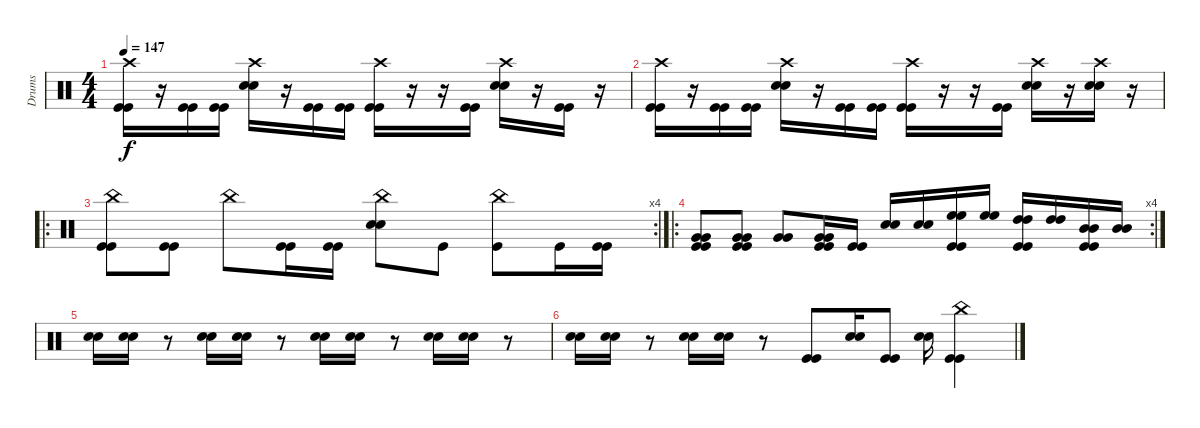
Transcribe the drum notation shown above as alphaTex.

\track ("Drums" "Drums") {instrument percussion}
\staff {score}
\articulation defaults
\ts (4 4)
\tempo 147
\clef neutral
\ks c
("Crash high (hit)" "Kick (hit)" "Kick (hit)").16{dy f} r.16 ("Kick (hit)" "Kick (hit)").16 ("Kick (hit)" "Kick (hit)").16 ("Crash high (hit)" "Snare (hit) 2" "Snare (hit) 2").16 r.16 ("Kick (hit)" "Kick (hit)").16 ("Kick (hit)" "Kick (hit)").16 ("Crash high (hit)" "Kick (hit)" "Kick (hit)").16 r.16 r.16 ("Kick (hit)" "Kick (hit)").16 ("Crash high (hit)" "Snare (hit) 2" "Snare (hit) 2").16 r.16 ("Kick (hit)" "Kick (hit)").16 r.16 |
("Crash high (hit)" "Kick (hit)" "Kick (hit)").16 r.16 ("Kick (hit)" "Kick (hit)").16 ("Kick (hit)" "Kick (hit)").16 ("Crash high (hit)" "Snare (hit) 2" "Snare (hit) 2").16 r.16 ("Kick (hit)" "Kick (hit)").16 ("Kick (hit)" "Kick (hit)").16 ("Crash high (hit)" "Kick (hit)" "Kick (hit)").16 r.16 r.16 ("Kick (hit)" "Kick (hit)").16 ("Crash high (hit)" "Snare (hit) 2" "Snare (hit) 2").16 r.16 ("Crash high (hit)" "Snare (hit) 2" "Snare (hit) 2").16 r.16 |
\ro
\rc 4
("China (hit)" "Kick (hit)" "Kick (hit)").8 ("Kick (hit)" "Kick (hit)").8 "China (hit)".8 ("Kick (hit)" "Kick (hit)").16 ("Kick (hit)" "Kick (hit)").16 ("China (hit)" "Snare (hit) 2" "Snare (hit) 2").8 "Kick (hit)".8 ("China (hit)" "Kick (hit)").8 "Kick (hit)".16 ("Kick (hit)" "Kick (hit)").16 |
\ro
\rc 4
("Very Low Tom (hit)" "Very Low Tom (hit)" "Kick (hit)" "Kick (hit)").8 ("Very Low Tom (hit)" "Very Low Tom (hit)" "Kick (hit)" "Kick (hit)").8 ("Very Low Tom (hit)" "Very Low Tom (hit)").8 ("Very Low Tom (hit)" "Very Low Tom (hit)" "Kick (hit)" "Kick (hit)").16 ("Kick (hit)" "Kick (hit)").16 ("Snare (hit) 2" "Snare (hit) 2").16 ("Snare (hit) 2" "Snare (hit) 2").16 ("High Floor Tom (hit)" "High Floor Tom (hit)" "Kick (hit)" "Kick (hit)").16 ("High Floor Tom (hit)" "High Floor Tom (hit)").16 ("High Tom (hit)" "High Tom (hit)" "Kick (hit)" "Kick (hit)").16 ("High Tom (hit)" "High Tom (hit)").16 ("Mid Tom (hit)" "Mid Tom (hit)" "Kick (hit)" "Kick (hit)").16 ("Mid Tom (hit)" "Mid Tom (hit)").16 |
("Snare (hit) 2" "Snare (hit) 2").16 ("Snare (hit) 2" "Snare (hit) 2").16 r.8 ("Snare (hit) 2" "Snare (hit) 2").16 ("Snare (hit) 2" "Snare (hit) 2").16 r.8 ("Snare (hit) 2" "Snare (hit) 2").16 ("Snare (hit) 2" "Snare (hit) 2").16 r.8 ("Snare (hit) 2" "Snare (hit) 2").16 ("Snare (hit) 2" "Snare (hit) 2").16 r.8 |
("Snare (hit) 2" "Snare (hit) 2").16 ("Snare (hit) 2" "Snare (hit) 2").16 r.8 ("Snare (hit) 2" "Snare (hit) 2").16 ("Snare (hit) 2" "Snare (hit) 2").16 r.8 ("Kick (hit)" "Kick (hit)").8 ("Snare (hit) 2" "Snare (hit) 2").16 ("Kick (hit)" "Kick (hit)").8 ("Snare (hit) 2" "Snare (hit) 2").16 ("China (hit)" "Kick (hit)" "Kick (hit)").4
